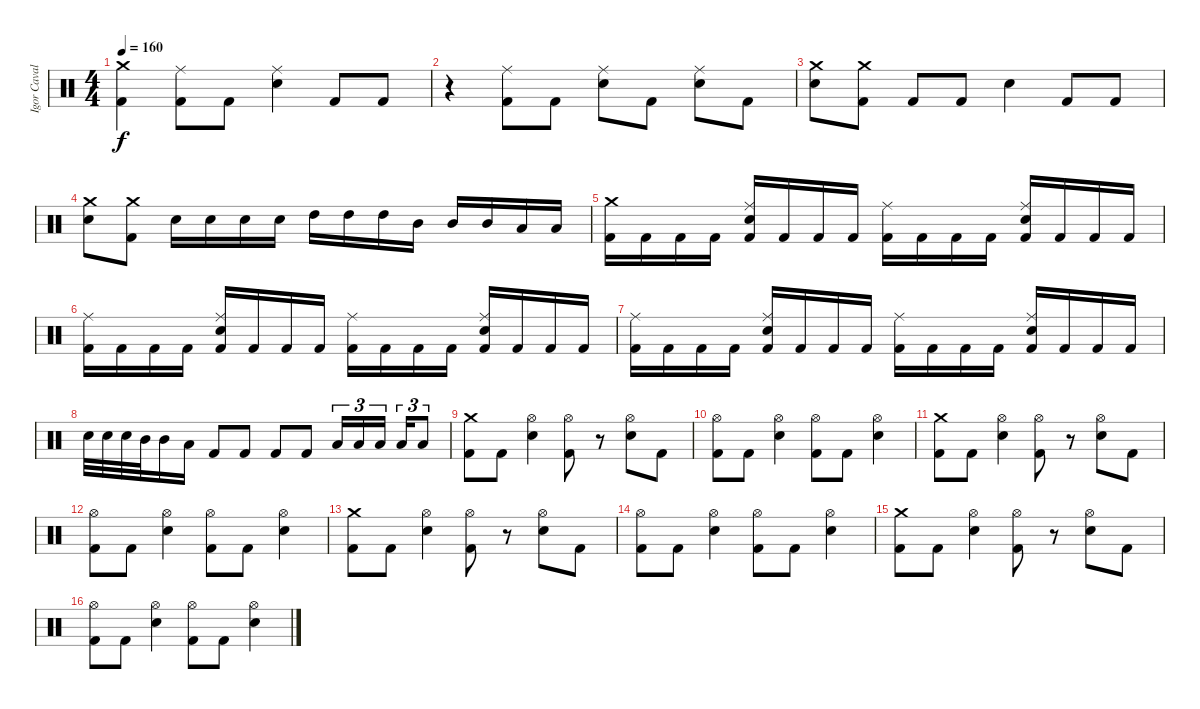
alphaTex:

\track ("Igor Cavalera" "Igor Caval") {instrument percussion}
\staff {score}
\articulation defaults
\ts (4 4)
\tempo 160
\clef neutral
\ks c
("Crash medium (hit)" "Kick (hit) 2").4{dy f} ("Kick (hit) 2" "Ride (middle)").8 "Kick (hit) 2".8 ("Electric Snare (hit)" "Ride (middle)").4 "Kick (hit) 2".8 "Kick (hit) 2".8 |
r.4 ("Kick (hit) 2" "Ride (middle)").8 "Kick (hit) 2".8 ("Electric Snare (hit)" "Ride (middle)").8 "Kick (hit) 2".8 ("Electric Snare (hit)" "Ride (middle)").8 "Kick (hit) 2".8 |
("Electric Snare (hit)" "Crash medium (hit)").8 ("Kick (hit) 2" "Crash medium (hit)").8 "Kick (hit) 2".8 "Kick (hit) 2".8 "Electric Snare (hit)".4 "Kick (hit) 2".8 "Kick (hit) 2".8 |
("Electric Snare (hit)" "Crash medium (hit)").8 ("Kick (hit) 2" "Crash medium (hit)").8 "Electric Snare (hit)".16 "Electric Snare (hit)".16 "Electric Snare (hit)".16 "Electric Snare (hit)".16 "High Tom (hit)".16 "High Tom (hit)".16 "High Tom (hit)".16 "Mid Tom (hit)".16 "Mid Tom (hit)".16 "Mid Tom (hit)".16 "Low Tom (hit)".16 "Low Tom (hit)".16 |
("Crash medium (hit)" "Kick (hit) 2").16 "Kick (hit) 2".16 "Kick (hit) 2".16 "Kick (hit) 2".16 ("Ride (middle)" "Kick (hit) 2" "Electric Snare (hit)").16 "Kick (hit) 2".16 "Kick (hit) 2".16 "Kick (hit) 2".16 ("Ride (middle)" "Kick (hit) 2").16 "Kick (hit) 2".16 "Kick (hit) 2".16 "Kick (hit) 2".16 ("Ride (middle)" "Kick (hit) 2" "Electric Snare (hit)").16 "Kick (hit) 2".16 "Kick (hit) 2".16 "Kick (hit) 2".16 |
("Ride (middle)" "Kick (hit) 2").16 "Kick (hit) 2".16 "Kick (hit) 2".16 "Kick (hit) 2".16 ("Ride (middle)" "Kick (hit) 2" "Electric Snare (hit)").16 "Kick (hit) 2".16 "Kick (hit) 2".16 "Kick (hit) 2".16 ("Ride (middle)" "Kick (hit) 2").16 "Kick (hit) 2".16 "Kick (hit) 2".16 "Kick (hit) 2".16 ("Ride (middle)" "Kick (hit) 2" "Electric Snare (hit)").16 "Kick (hit) 2".16 "Kick (hit) 2".16 "Kick (hit) 2".16 |
("Ride (middle)" "Kick (hit) 2").16 "Kick (hit) 2".16 "Kick (hit) 2".16 "Kick (hit) 2".16 ("Ride (middle)" "Kick (hit) 2" "Electric Snare (hit)").16 "Kick (hit) 2".16 "Kick (hit) 2".16 "Kick (hit) 2".16 ("Ride (middle)" "Kick (hit) 2").16 "Kick (hit) 2".16 "Kick (hit) 2".16 "Kick (hit) 2".16 ("Ride (middle)" "Kick (hit) 2" "Electric Snare (hit)").16 "Kick (hit) 2".16 "Kick (hit) 2".16 "Kick (hit) 2".16 |
"Electric Snare (hit)".32 "Electric Snare (hit)".32 "Electric Snare (hit)".32 "Mid Tom (hit)".32 "Mid Tom (hit)".16 "Low Tom (hit)".16 "Kick (hit) 2".8 "Kick (hit) 2".8 "Kick (hit) 2".8 "Kick (hit) 2".8 "Low Tom (hit)".16{tu (3 2)} "Low Tom (hit)".16{tu (3 2)} "Low Tom (hit)".16{tu (3 2)} "Low Tom (hit)".16{tu (3 2)} "Low Tom (hit)".8{tu (3 2)} |
("Kick (hit) 2" "Crash medium (hit)").8 "Kick (hit) 2".8 ("Hi-Hat (open)" "Electric Snare (hit)").4 ("Hi-Hat (open)" "Kick (hit) 2").8 r.8 ("Hi-Hat (open)" "Electric Snare (hit)").8 "Kick (hit) 2".8 |
("Kick (hit) 2" "Hi-Hat (open)").8 "Kick (hit) 2".8 ("Hi-Hat (open)" "Electric Snare (hit)").4 ("Hi-Hat (open)" "Kick (hit) 2").8 "Kick (hit) 2".8 ("Hi-Hat (open)" "Electric Snare (hit)").4 |
("Kick (hit) 2" "Crash medium (hit)").8 "Kick (hit) 2".8 ("Hi-Hat (open)" "Electric Snare (hit)").4 ("Hi-Hat (open)" "Kick (hit) 2").8 r.8 ("Hi-Hat (open)" "Electric Snare (hit)").8 "Kick (hit) 2".8 |
("Kick (hit) 2" "Hi-Hat (open)").8 "Kick (hit) 2".8 ("Hi-Hat (open)" "Electric Snare (hit)").4 ("Hi-Hat (open)" "Kick (hit) 2").8 "Kick (hit) 2".8 ("Hi-Hat (open)" "Electric Snare (hit)").4 |
("Kick (hit) 2" "Crash medium (hit)").8 "Kick (hit) 2".8 ("Hi-Hat (open)" "Electric Snare (hit)").4 ("Hi-Hat (open)" "Kick (hit) 2").8 r.8 ("Hi-Hat (open)" "Electric Snare (hit)").8 "Kick (hit) 2".8 |
("Kick (hit) 2" "Hi-Hat (open)").8 "Kick (hit) 2".8 ("Hi-Hat (open)" "Electric Snare (hit)").4 ("Hi-Hat (open)" "Kick (hit) 2").8 "Kick (hit) 2".8 ("Hi-Hat (open)" "Electric Snare (hit)").4 |
("Kick (hit) 2" "Crash medium (hit)").8 "Kick (hit) 2".8 ("Hi-Hat (open)" "Electric Snare (hit)").4 ("Hi-Hat (open)" "Kick (hit) 2").8 r.8 ("Hi-Hat (open)" "Electric Snare (hit)").8 "Kick (hit) 2".8 |
("Kick (hit) 2" "Hi-Hat (open)").8 "Kick (hit) 2".8 ("Hi-Hat (open)" "Electric Snare (hit)").4 ("Hi-Hat (open)" "Kick (hit) 2").8 "Kick (hit) 2".8 ("Hi-Hat (open)" "Electric Snare (hit)").4
